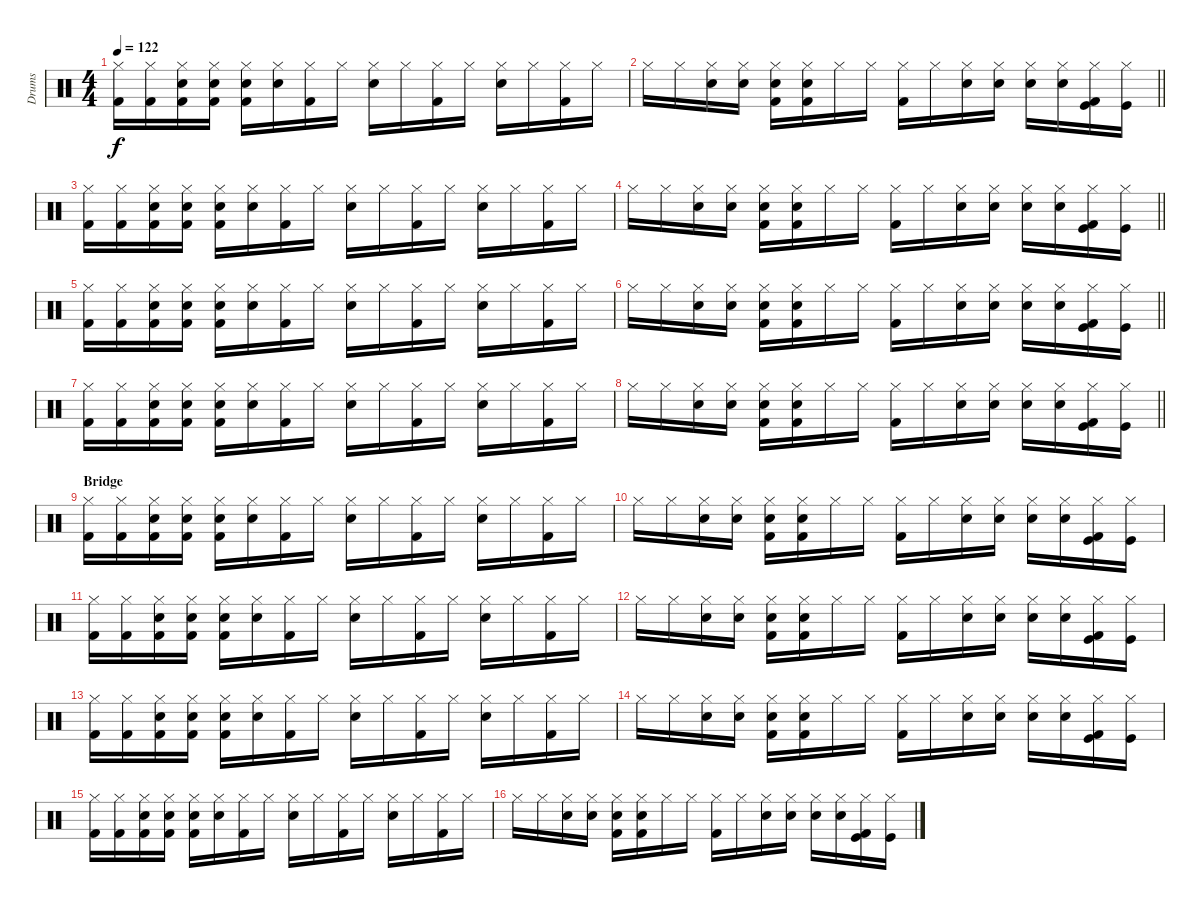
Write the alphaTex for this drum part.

\track ("Drums" "Drums") {instrument percussion}
\staff {score}
\articulation defaults
\ts (4 4)
\tempo 122
\clef neutral
\ks c
("Hi-Hat (closed)" "Kick (hit) 2").16{dy f} ("Hi-Hat (closed)" "Kick (hit) 2").16 ("Hi-Hat (closed)" "Hand Clap (hit)" "Kick (hit) 2").16 ("Hi-Hat (closed)" "Hand Clap (hit)" "Kick (hit) 2").16 ("Hi-Hat (closed)" "Hand Clap (hit)" "Kick (hit) 2").16 ("Hi-Hat (closed)" "Hand Clap (hit)").16 ("Hi-Hat (closed)" "Kick (hit) 2").16 "Hi-Hat (closed)".16 ("Hi-Hat (closed)" "Electric Snare (hit)").16 "Hi-Hat (closed)".16 ("Hi-Hat (closed)" "Kick (hit) 2").16 "Hi-Hat (closed)".16 ("Hi-Hat (closed)" "Electric Snare (hit)").16 "Hi-Hat (closed)".16 ("Hi-Hat (closed)" "Kick (hit) 2").16 "Hi-Hat (closed)".16 |
\barLineRight lightlight "Hi-Hat (closed)".16 "Hi-Hat (closed)".16
("Hi-Hat (closed)" "Hand Clap (hit)").16 ("Hi-Hat (closed)" "Hand Clap (hit)").16 ("Hi-Hat (closed)" "Hand Clap (hit)" "Kick (hit) 2").16 ("Hi-Hat (closed)" "Hand Clap (hit)" "Kick (hit) 2").16 "Hi-Hat (closed)".16 "Hi-Hat (closed)".16 ("Hi-Hat (closed)" "Kick (hit) 2").16 "Hi-Hat (closed)".16 ("Hi-Hat (closed)" "Hand Clap (hit)").16 ("Hi-Hat (closed)" "Hand Clap (hit)").16 ("Hi-Hat (closed)" "Hand Clap (hit)").16 ("Hi-Hat (closed)" "Hand Clap (hit)").16 ("Hi-Hat (closed)" "Kick (hit)" "Kick (hit) 2").16 ("Hi-Hat (closed)" "Kick (hit)").16 |
("Hi-Hat (closed)" "Kick (hit) 2").16 ("Hi-Hat (closed)" "Kick (hit) 2").16 ("Hi-Hat (closed)" "Hand Clap (hit)" "Kick (hit) 2").16 ("Hi-Hat (closed)" "Hand Clap (hit)" "Kick (hit) 2").16 ("Hi-Hat (closed)" "Hand Clap (hit)" "Kick (hit) 2").16 ("Hi-Hat (closed)" "Hand Clap (hit)").16 ("Hi-Hat (closed)" "Kick (hit) 2").16 "Hi-Hat (closed)".16 ("Hi-Hat (closed)" "Electric Snare (hit)").16 "Hi-Hat (closed)".16 ("Hi-Hat (closed)" "Kick (hit) 2").16 "Hi-Hat (closed)".16 ("Hi-Hat (closed)" "Electric Snare (hit)").16 "Hi-Hat (closed)".16 ("Hi-Hat (closed)" "Kick (hit) 2").16 "Hi-Hat (closed)".16 |
\barLineRight lightlight "Hi-Hat (closed)".16 "Hi-Hat (closed)".16
("Hi-Hat (closed)" "Hand Clap (hit)").16 ("Hi-Hat (closed)" "Hand Clap (hit)").16 ("Hi-Hat (closed)" "Hand Clap (hit)" "Kick (hit) 2").16 ("Hi-Hat (closed)" "Hand Clap (hit)" "Kick (hit) 2").16 "Hi-Hat (closed)".16 "Hi-Hat (closed)".16 ("Hi-Hat (closed)" "Kick (hit) 2").16 "Hi-Hat (closed)".16 ("Hi-Hat (closed)" "Hand Clap (hit)").16 ("Hi-Hat (closed)" "Hand Clap (hit)").16 ("Hi-Hat (closed)" "Hand Clap (hit)").16 ("Hi-Hat (closed)" "Hand Clap (hit)").16 ("Hi-Hat (closed)" "Kick (hit)" "Kick (hit) 2").16 ("Hi-Hat (closed)" "Kick (hit)").16 |
("Hi-Hat (closed)" "Kick (hit) 2").16 ("Hi-Hat (closed)" "Kick (hit) 2").16 ("Hi-Hat (closed)" "Hand Clap (hit)" "Kick (hit) 2").16 ("Hi-Hat (closed)" "Hand Clap (hit)" "Kick (hit) 2").16 ("Hi-Hat (closed)" "Hand Clap (hit)" "Kick (hit) 2").16 ("Hi-Hat (closed)" "Hand Clap (hit)").16 ("Hi-Hat (closed)" "Kick (hit) 2").16 "Hi-Hat (closed)".16 ("Hi-Hat (closed)" "Electric Snare (hit)").16 "Hi-Hat (closed)".16 ("Hi-Hat (closed)" "Kick (hit) 2").16 "Hi-Hat (closed)".16 ("Hi-Hat (closed)" "Electric Snare (hit)").16 "Hi-Hat (closed)".16 ("Hi-Hat (closed)" "Kick (hit) 2").16 "Hi-Hat (closed)".16 |
\barLineRight lightlight "Hi-Hat (closed)".16 "Hi-Hat (closed)".16
("Hi-Hat (closed)" "Hand Clap (hit)").16 ("Hi-Hat (closed)" "Hand Clap (hit)").16 ("Hi-Hat (closed)" "Hand Clap (hit)" "Kick (hit) 2").16 ("Hi-Hat (closed)" "Hand Clap (hit)" "Kick (hit) 2").16 "Hi-Hat (closed)".16 "Hi-Hat (closed)".16 ("Hi-Hat (closed)" "Kick (hit) 2").16 "Hi-Hat (closed)".16 ("Hi-Hat (closed)" "Hand Clap (hit)").16 ("Hi-Hat (closed)" "Hand Clap (hit)").16 ("Hi-Hat (closed)" "Hand Clap (hit)").16 ("Hi-Hat (closed)" "Hand Clap (hit)").16 ("Hi-Hat (closed)" "Kick (hit)" "Kick (hit) 2").16 ("Hi-Hat (closed)" "Kick (hit)").16 |
("Hi-Hat (closed)" "Kick (hit) 2").16 ("Hi-Hat (closed)" "Kick (hit) 2").16 ("Hi-Hat (closed)" "Hand Clap (hit)" "Kick (hit) 2").16 ("Hi-Hat (closed)" "Hand Clap (hit)" "Kick (hit) 2").16 ("Hi-Hat (closed)" "Hand Clap (hit)" "Kick (hit) 2").16 ("Hi-Hat (closed)" "Hand Clap (hit)").16 ("Hi-Hat (closed)" "Kick (hit) 2").16 "Hi-Hat (closed)".16 ("Hi-Hat (closed)" "Electric Snare (hit)").16 "Hi-Hat (closed)".16 ("Hi-Hat (closed)" "Kick (hit) 2").16 "Hi-Hat (closed)".16 ("Hi-Hat (closed)" "Electric Snare (hit)").16 "Hi-Hat (closed)".16 ("Hi-Hat (closed)" "Kick (hit) 2").16 "Hi-Hat (closed)".16 |
\barLineRight lightlight "Hi-Hat (closed)".16 "Hi-Hat (closed)".16
("Hi-Hat (closed)" "Hand Clap (hit)").16 ("Hi-Hat (closed)" "Hand Clap (hit)").16 ("Hi-Hat (closed)" "Hand Clap (hit)" "Kick (hit) 2").16 ("Hi-Hat (closed)" "Hand Clap (hit)" "Kick (hit) 2").16 "Hi-Hat (closed)".16 "Hi-Hat (closed)".16 ("Hi-Hat (closed)" "Kick (hit) 2").16 "Hi-Hat (closed)".16 ("Hi-Hat (closed)" "Hand Clap (hit)").16 ("Hi-Hat (closed)" "Hand Clap (hit)").16 ("Hi-Hat (closed)" "Hand Clap (hit)").16 ("Hi-Hat (closed)" "Hand Clap (hit)").16 ("Hi-Hat (closed)" "Kick (hit)" "Kick (hit) 2").16 ("Hi-Hat (closed)" "Kick (hit)").16 |
\section ("" "Bridge")
("Hi-Hat (closed)" "Kick (hit) 2").16 ("Hi-Hat (closed)" "Kick (hit) 2").16 ("Hi-Hat (closed)" "Hand Clap (hit)" "Kick (hit) 2").16 ("Hi-Hat (closed)" "Hand Clap (hit)" "Kick (hit) 2").16 ("Hi-Hat (closed)" "Hand Clap (hit)" "Kick (hit) 2").16 ("Hi-Hat (closed)" "Hand Clap (hit)").16 ("Hi-Hat (closed)" "Kick (hit) 2").16 "Hi-Hat (closed)".16 ("Hi-Hat (closed)" "Electric Snare (hit)").16 "Hi-Hat (closed)".16 ("Hi-Hat (closed)" "Kick (hit) 2").16 "Hi-Hat (closed)".16 ("Hi-Hat (closed)" "Electric Snare (hit)").16 "Hi-Hat (closed)".16 ("Hi-Hat (closed)" "Kick (hit) 2").16 "Hi-Hat (closed)".16 |
"Hi-Hat (closed)".16 "Hi-Hat (closed)".16 ("Hi-Hat (closed)" "Hand Clap (hit)").16 ("Hi-Hat (closed)" "Hand Clap (hit)").16 ("Hi-Hat (closed)" "Hand Clap (hit)" "Kick (hit) 2").16 ("Hi-Hat (closed)" "Hand Clap (hit)" "Kick (hit) 2").16 "Hi-Hat (closed)".16 "Hi-Hat (closed)".16 ("Hi-Hat (closed)" "Kick (hit) 2").16 "Hi-Hat (closed)".16 ("Hi-Hat (closed)" "Hand Clap (hit)").16 ("Hi-Hat (closed)" "Hand Clap (hit)").16 ("Hi-Hat (closed)" "Hand Clap (hit)").16 ("Hi-Hat (closed)" "Hand Clap (hit)").16 ("Hi-Hat (closed)" "Kick (hit)" "Kick (hit) 2").16 ("Hi-Hat (closed)" "Kick (hit)").16 |
("Hi-Hat (closed)" "Kick (hit) 2").16 ("Hi-Hat (closed)" "Kick (hit) 2").16 ("Hi-Hat (closed)" "Hand Clap (hit)" "Kick (hit) 2").16 ("Hi-Hat (closed)" "Hand Clap (hit)" "Kick (hit) 2").16 ("Hi-Hat (closed)" "Hand Clap (hit)" "Kick (hit) 2").16 ("Hi-Hat (closed)" "Hand Clap (hit)").16 ("Hi-Hat (closed)" "Kick (hit) 2").16 "Hi-Hat (closed)".16 ("Hi-Hat (closed)" "Electric Snare (hit)").16 "Hi-Hat (closed)".16 ("Hi-Hat (closed)" "Kick (hit) 2").16 "Hi-Hat (closed)".16 ("Hi-Hat (closed)" "Electric Snare (hit)").16 "Hi-Hat (closed)".16 ("Hi-Hat (closed)" "Kick (hit) 2").16 "Hi-Hat (closed)".16 |
"Hi-Hat (closed)".16 "Hi-Hat (closed)".16 ("Hi-Hat (closed)" "Hand Clap (hit)").16 ("Hi-Hat (closed)" "Hand Clap (hit)").16 ("Hi-Hat (closed)" "Hand Clap (hit)" "Kick (hit) 2").16 ("Hi-Hat (closed)" "Hand Clap (hit)" "Kick (hit) 2").16 "Hi-Hat (closed)".16 "Hi-Hat (closed)".16 ("Hi-Hat (closed)" "Kick (hit) 2").16 "Hi-Hat (closed)".16 ("Hi-Hat (closed)" "Hand Clap (hit)").16 ("Hi-Hat (closed)" "Hand Clap (hit)").16 ("Hi-Hat (closed)" "Hand Clap (hit)").16 ("Hi-Hat (closed)" "Hand Clap (hit)").16 ("Hi-Hat (closed)" "Kick (hit)" "Kick (hit) 2").16 ("Hi-Hat (closed)" "Kick (hit)").16 |
("Hi-Hat (closed)" "Kick (hit) 2").16 ("Hi-Hat (closed)" "Kick (hit) 2").16 ("Hi-Hat (closed)" "Hand Clap (hit)" "Kick (hit) 2").16 ("Hi-Hat (closed)" "Hand Clap (hit)" "Kick (hit) 2").16 ("Hi-Hat (closed)" "Hand Clap (hit)" "Kick (hit) 2").16 ("Hi-Hat (closed)" "Hand Clap (hit)").16 ("Hi-Hat (closed)" "Kick (hit) 2").16 "Hi-Hat (closed)".16 ("Hi-Hat (closed)" "Electric Snare (hit)").16 "Hi-Hat (closed)".16 ("Hi-Hat (closed)" "Kick (hit) 2").16 "Hi-Hat (closed)".16 ("Hi-Hat (closed)" "Electric Snare (hit)").16 "Hi-Hat (closed)".16 ("Hi-Hat (closed)" "Kick (hit) 2").16 "Hi-Hat (closed)".16 |
"Hi-Hat (closed)".16 "Hi-Hat (closed)".16 ("Hi-Hat (closed)" "Hand Clap (hit)").16 ("Hi-Hat (closed)" "Hand Clap (hit)").16 ("Hi-Hat (closed)" "Hand Clap (hit)" "Kick (hit) 2").16 ("Hi-Hat (closed)" "Hand Clap (hit)" "Kick (hit) 2").16 "Hi-Hat (closed)".16 "Hi-Hat (closed)".16 ("Hi-Hat (closed)" "Kick (hit) 2").16 "Hi-Hat (closed)".16 ("Hi-Hat (closed)" "Hand Clap (hit)").16 ("Hi-Hat (closed)" "Hand Clap (hit)").16 ("Hi-Hat (closed)" "Hand Clap (hit)").16 ("Hi-Hat (closed)" "Hand Clap (hit)").16 ("Hi-Hat (closed)" "Kick (hit)" "Kick (hit) 2").16 ("Hi-Hat (closed)" "Kick (hit)").16 |
("Hi-Hat (closed)" "Kick (hit) 2").16 ("Hi-Hat (closed)" "Kick (hit) 2").16 ("Hi-Hat (closed)" "Hand Clap (hit)" "Kick (hit) 2").16 ("Hi-Hat (closed)" "Hand Clap (hit)" "Kick (hit) 2").16 ("Hi-Hat (closed)" "Hand Clap (hit)" "Kick (hit) 2").16 ("Hi-Hat (closed)" "Hand Clap (hit)").16 ("Hi-Hat (closed)" "Kick (hit) 2").16 "Hi-Hat (closed)".16 ("Hi-Hat (closed)" "Electric Snare (hit)").16 "Hi-Hat (closed)".16 ("Hi-Hat (closed)" "Kick (hit) 2").16 "Hi-Hat (closed)".16 ("Hi-Hat (closed)" "Electric Snare (hit)").16 "Hi-Hat (closed)".16 ("Hi-Hat (closed)" "Kick (hit) 2").16 "Hi-Hat (closed)".16 |
"Hi-Hat (closed)".16 "Hi-Hat (closed)".16 ("Hi-Hat (closed)" "Hand Clap (hit)").16 ("Hi-Hat (closed)" "Hand Clap (hit)").16 ("Hi-Hat (closed)" "Hand Clap (hit)" "Kick (hit) 2").16 ("Hi-Hat (closed)" "Hand Clap (hit)" "Kick (hit) 2").16 "Hi-Hat (closed)".16 "Hi-Hat (closed)".16 ("Hi-Hat (closed)" "Kick (hit) 2").16 "Hi-Hat (closed)".16 ("Hi-Hat (closed)" "Hand Clap (hit)").16 ("Hi-Hat (closed)" "Hand Clap (hit)").16 ("Hi-Hat (closed)" "Hand Clap (hit)").16 ("Hi-Hat (closed)" "Hand Clap (hit)").16 ("Hi-Hat (closed)" "Kick (hit)" "Kick (hit) 2").16 ("Hi-Hat (closed)" "Kick (hit)").16
